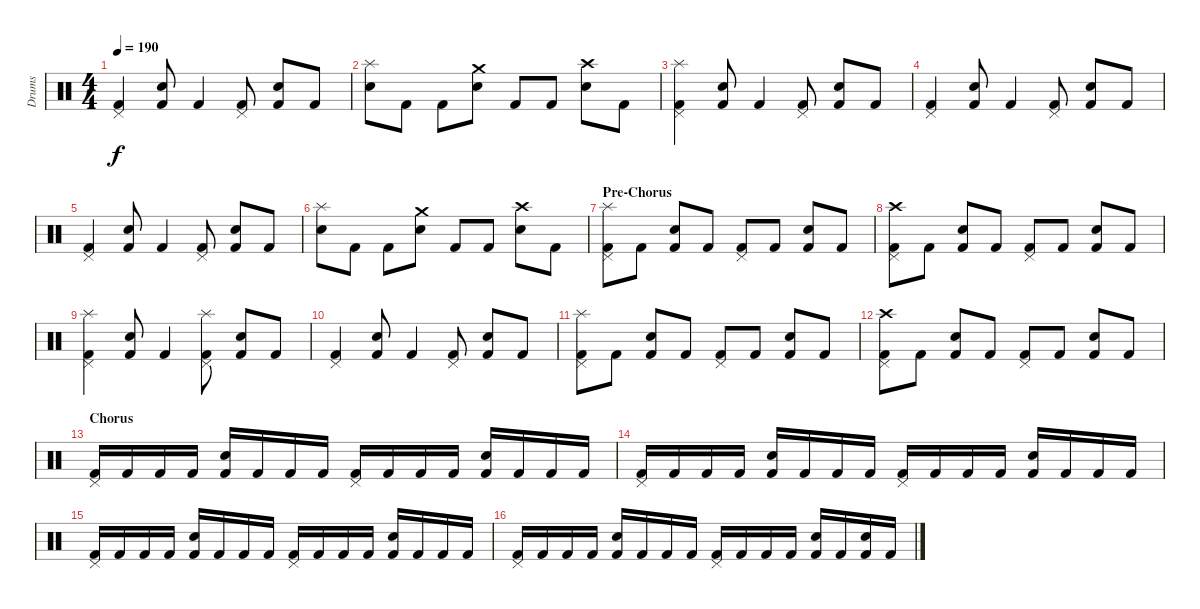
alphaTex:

\track ("Drums" "Drums") {instrument percussion}
\staff {score}
\articulation defaults
\ts (4 4)
\tempo 190
\clef neutral
\ks c
("Pedal Hi-Hat (hit)" "Kick (hit) 2").4{dy f} ("Electric Snare (hit)" "Kick (hit) 2").8 "Kick (hit) 2".4 ("Pedal Hi-Hat (hit)" "Kick (hit) 2").8 ("Electric Snare (hit)" "Kick (hit) 2").8 "Kick (hit) 2".8 |
("Splash (hit)" "Electric Snare (hit)").8 "Kick (hit) 2".8 "Kick (hit) 2".8 ("Crash medium (hit)" "Electric Snare (hit)").8 "Kick (hit) 2".8 "Kick (hit) 2".8 ("Crash high (hit)" "Electric Snare (hit)").8 "Kick (hit) 2".8 |
("Pedal Hi-Hat (hit)" "Splash (hit)" "Kick (hit) 2").4 ("Electric Snare (hit)" "Kick (hit) 2").8 "Kick (hit) 2".4 ("Pedal Hi-Hat (hit)" "Kick (hit) 2").8 ("Electric Snare (hit)" "Kick (hit) 2").8 "Kick (hit) 2".8 |
("Pedal Hi-Hat (hit)" "Kick (hit) 2").4 ("Electric Snare (hit)" "Kick (hit) 2").8 "Kick (hit) 2".4 ("Pedal Hi-Hat (hit)" "Kick (hit) 2").8 ("Electric Snare (hit)" "Kick (hit) 2").8 "Kick (hit) 2".8 |
("Pedal Hi-Hat (hit)" "Kick (hit) 2").4 ("Electric Snare (hit)" "Kick (hit) 2").8 "Kick (hit) 2".4 ("Pedal Hi-Hat (hit)" "Kick (hit) 2").8 ("Electric Snare (hit)" "Kick (hit) 2").8 "Kick (hit) 2".8 |
("Splash (hit)" "Electric Snare (hit)").8 "Kick (hit) 2".8 "Kick (hit) 2".8 ("Crash medium (hit)" "Electric Snare (hit)").8 "Kick (hit) 2".8 "Kick (hit) 2".8 ("Crash high (hit)" "Electric Snare (hit)").8 "Kick (hit) 2".8 |
\section ("" "Pre-Chorus")
("Splash (hit)" "Pedal Hi-Hat (hit)" "Kick (hit) 2").8 "Kick (hit) 2".8 ("Electric Snare (hit)" "Kick (hit) 2").8 "Kick (hit) 2".8 ("Pedal Hi-Hat (hit)" "Kick (hit) 2").8 "Kick (hit) 2".8 ("Electric Snare (hit)" "Kick (hit) 2").8 "Kick (hit) 2".8 |
("Crash high (hit)" "Pedal Hi-Hat (hit)" "Kick (hit) 2").8 "Kick (hit) 2".8 ("Electric Snare (hit)" "Kick (hit) 2").8 "Kick (hit) 2".8 ("Pedal Hi-Hat (hit)" "Kick (hit) 2").8 "Kick (hit) 2".8 ("Electric Snare (hit)" "Kick (hit) 2").8 "Kick (hit) 2".8 |
("Pedal Hi-Hat (hit)" "Splash (hit)" "Kick (hit) 2").4 ("Electric Snare (hit)" "Kick (hit) 2").8 "Kick (hit) 2".4 ("Pedal Hi-Hat (hit)" "Splash (hit)" "Kick (hit) 2").8 ("Electric Snare (hit)" "Kick (hit) 2").8 "Kick (hit) 2".8 |
("Pedal Hi-Hat (hit)" "Kick (hit) 2").4 ("Electric Snare (hit)" "Kick (hit) 2").8 "Kick (hit) 2".4 ("Pedal Hi-Hat (hit)" "Kick (hit) 2").8 ("Electric Snare (hit)" "Kick (hit) 2").8 "Kick (hit) 2".8 |
("Splash (hit)" "Pedal Hi-Hat (hit)" "Kick (hit) 2").8 "Kick (hit) 2".8 ("Electric Snare (hit)" "Kick (hit) 2").8 "Kick (hit) 2".8 ("Pedal Hi-Hat (hit)" "Kick (hit) 2").8 "Kick (hit) 2".8 ("Electric Snare (hit)" "Kick (hit) 2").8 "Kick (hit) 2".8 |
("Crash high (hit)" "Pedal Hi-Hat (hit)" "Kick (hit) 2").8 "Kick (hit) 2".8 ("Electric Snare (hit)" "Kick (hit) 2").8 "Kick (hit) 2".8 ("Pedal Hi-Hat (hit)" "Kick (hit) 2").8 "Kick (hit) 2".8 ("Electric Snare (hit)" "Kick (hit) 2").8 "Kick (hit) 2".8 |
\section ("" "Chorus")
("Pedal Hi-Hat (hit)" "Kick (hit) 2").16 "Kick (hit) 2".16 "Kick (hit) 2".16 "Kick (hit) 2".16 ("Electric Snare (hit)" "Kick (hit) 2").16 "Kick (hit) 2".16 "Kick (hit) 2".16 "Kick (hit) 2".16 ("Pedal Hi-Hat (hit)" "Kick (hit) 2").16 "Kick (hit) 2".16 "Kick (hit) 2".16 "Kick (hit) 2".16 ("Electric Snare (hit)" "Kick (hit) 2").16 "Kick (hit) 2".16 "Kick (hit) 2".16 "Kick (hit) 2".16 |
("Pedal Hi-Hat (hit)" "Kick (hit) 2").16 "Kick (hit) 2".16 "Kick (hit) 2".16 "Kick (hit) 2".16 ("Electric Snare (hit)" "Kick (hit) 2").16 "Kick (hit) 2".16 "Kick (hit) 2".16 "Kick (hit) 2".16 ("Pedal Hi-Hat (hit)" "Kick (hit) 2").16 "Kick (hit) 2".16 "Kick (hit) 2".16 "Kick (hit) 2".16 ("Electric Snare (hit)" "Kick (hit) 2").16 "Kick (hit) 2".16 "Kick (hit) 2".16 "Kick (hit) 2".16 |
("Pedal Hi-Hat (hit)" "Kick (hit) 2").16 "Kick (hit) 2".16 "Kick (hit) 2".16 "Kick (hit) 2".16 ("Electric Snare (hit)" "Kick (hit) 2").16 "Kick (hit) 2".16 "Kick (hit) 2".16 "Kick (hit) 2".16 ("Pedal Hi-Hat (hit)" "Kick (hit) 2").16 "Kick (hit) 2".16 "Kick (hit) 2".16 "Kick (hit) 2".16 ("Electric Snare (hit)" "Kick (hit) 2").16 "Kick (hit) 2".16 "Kick (hit) 2".16 "Kick (hit) 2".16 |
("Pedal Hi-Hat (hit)" "Kick (hit) 2").16 "Kick (hit) 2".16 "Kick (hit) 2".16 "Kick (hit) 2".16 ("Electric Snare (hit)" "Kick (hit) 2").16 "Kick (hit) 2".16 "Kick (hit) 2".16 "Kick (hit) 2".16 ("Pedal Hi-Hat (hit)" "Kick (hit) 2").16 "Kick (hit) 2".16 "Kick (hit) 2".16 "Kick (hit) 2".16 ("Electric Snare (hit)" "Kick (hit) 2").16 "Kick (hit) 2".16 ("Electric Snare (hit)" "Kick (hit) 2").16 "Kick (hit) 2".16
